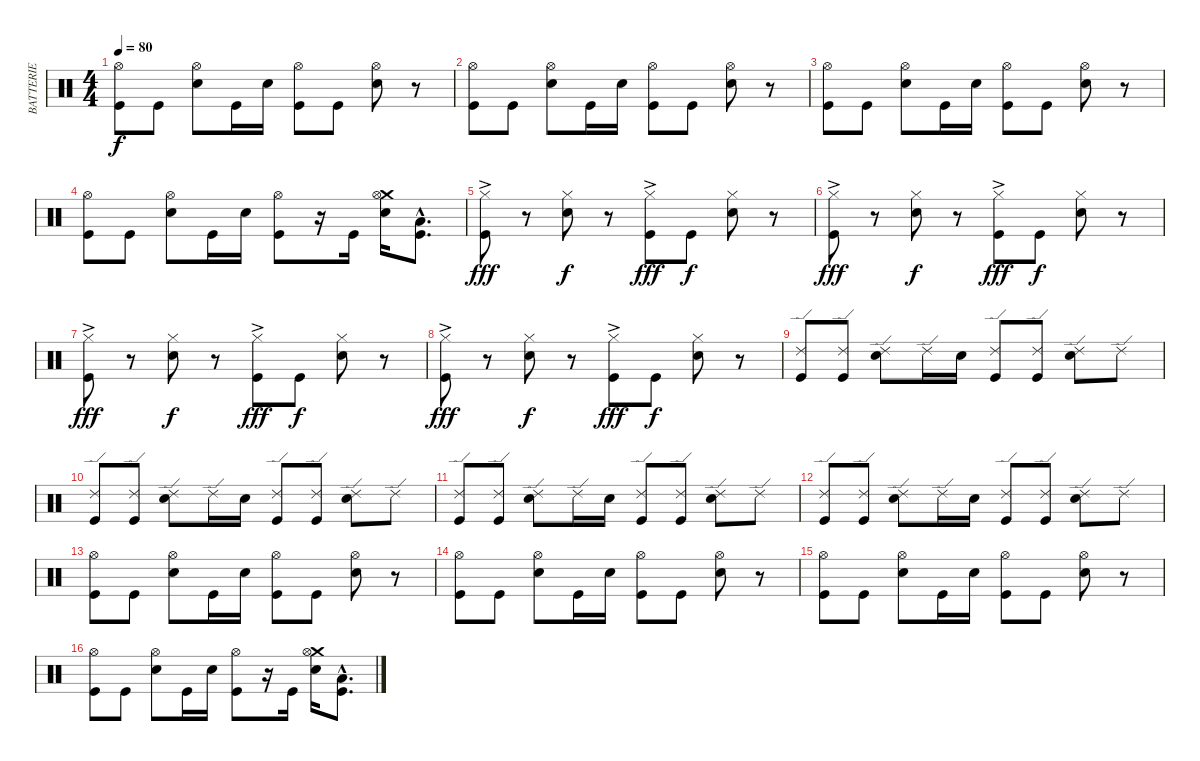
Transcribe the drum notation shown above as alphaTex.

\track ("BATTERIE" "BATTERIE") {instrument percussion}
\staff {score}
\articulation defaults
\ts (4 4)
\tempo 80
\clef neutral
\ks c
("Hi-Hat (open)" "Kick (hit)").8{dy f} "Kick (hit)".8 ("Hi-Hat (open)" "Electric Snare (hit)").8 "Kick (hit)".16 "Electric Snare (hit)".16 ("Hi-Hat (open)" "Kick (hit)").8 "Kick (hit)".8 ("Hi-Hat (open)" "Electric Snare (hit)").8 r.8 |
("Hi-Hat (open)" "Kick (hit)").8 "Kick (hit)".8 ("Hi-Hat (open)" "Electric Snare (hit)").8 "Kick (hit)".16 "Electric Snare (hit)".16 ("Hi-Hat (open)" "Kick (hit)").8 "Kick (hit)".8 ("Hi-Hat (open)" "Electric Snare (hit)").8 r.8 |
("Hi-Hat (open)" "Kick (hit)").8 "Kick (hit)".8 ("Hi-Hat (open)" "Electric Snare (hit)").8 "Kick (hit)".16 "Electric Snare (hit)".16 ("Hi-Hat (open)" "Kick (hit)").8 "Kick (hit)".8 ("Hi-Hat (open)" "Electric Snare (hit)").8 r.8 |
("Hi-Hat (open)" "Kick (hit)").8 "Kick (hit)".8 ("Hi-Hat (open)" "Electric Snare (hit)").8 "Kick (hit)".16 "Electric Snare (hit)".16 ("Hi-Hat (open)" "Kick (hit)").8 r.16 "Kick (hit)".16 ("Crash medium (hit)" "Hi-Hat (open)" "Electric Snare (hit)").16 ("Kick (hit)"{hac} "Low Floor Tom (hit)"{hac}).8{d} |
("Hi-Hat (closed)" "Kick (hit)"{ac}).8{dy fff} r.8 ("Hi-Hat (closed)" "Electric Snare (hit)").8{dy f} r.8 ("Hi-Hat (closed)" "Kick (hit)"{ac}).8{dy fff} "Kick (hit)".8{dy f} ("Hi-Hat (closed)" "Electric Snare (hit)").8 r.8 |
("Hi-Hat (closed)" "Kick (hit)"{ac}).8{dy fff} r.8 ("Hi-Hat (closed)" "Electric Snare (hit)").8{dy f} r.8 ("Hi-Hat (closed)" "Kick (hit)"{ac}).8{dy fff} "Kick (hit)".8{dy f} ("Hi-Hat (closed)" "Electric Snare (hit)").8 r.8 |
("Hi-Hat (closed)" "Kick (hit)"{ac}).8{dy fff} r.8 ("Hi-Hat (closed)" "Electric Snare (hit)").8{dy f} r.8 ("Hi-Hat (closed)" "Kick (hit)"{ac}).8{dy fff} "Kick (hit)".8{dy f} ("Hi-Hat (closed)" "Electric Snare (hit)").8 r.8 |
("Hi-Hat (closed)" "Kick (hit)"{ac}).8{dy fff} r.8 ("Hi-Hat (closed)" "Electric Snare (hit)").8{dy f} r.8 ("Hi-Hat (closed)" "Kick (hit)"{ac}).8{dy fff} "Kick (hit)".8{dy f} ("Hi-Hat (closed)" "Electric Snare (hit)").8 r.8 |
("Ride (edge) 2" "Kick (hit)").8 ("Ride (edge) 2" "Kick (hit)").8 ("Ride (edge) 2" "Electric Snare (hit)").8 "Ride (edge) 2".16 "Electric Snare (hit)".16 ("Ride (edge) 2" "Kick (hit)").8 ("Ride (edge) 2" "Kick (hit)").8 ("Ride (edge) 2" "Electric Snare (hit)").8 "Ride (edge) 2".8 |
("Ride (edge) 2" "Kick (hit)").8 ("Ride (edge) 2" "Kick (hit)").8 ("Ride (edge) 2" "Electric Snare (hit)").8 "Ride (edge) 2".16 "Electric Snare (hit)".16 ("Ride (edge) 2" "Kick (hit)").8 ("Ride (edge) 2" "Kick (hit)").8 ("Ride (edge) 2" "Electric Snare (hit)").8 "Ride (edge) 2".8 |
("Ride (edge) 2" "Kick (hit)").8 ("Ride (edge) 2" "Kick (hit)").8 ("Ride (edge) 2" "Electric Snare (hit)").8 "Ride (edge) 2".16 "Electric Snare (hit)".16 ("Ride (edge) 2" "Kick (hit)").8 ("Ride (edge) 2" "Kick (hit)").8 ("Ride (edge) 2" "Electric Snare (hit)").8 "Ride (edge) 2".8 |
("Ride (edge) 2" "Kick (hit)").8 ("Ride (edge) 2" "Kick (hit)").8 ("Ride (edge) 2" "Electric Snare (hit)").8 "Ride (edge) 2".16 "Electric Snare (hit)".16 ("Ride (edge) 2" "Kick (hit)").8 ("Ride (edge) 2" "Kick (hit)").8 ("Ride (edge) 2" "Electric Snare (hit)").8 "Ride (edge) 2".8 |
("Hi-Hat (open)" "Kick (hit)").8 "Kick (hit)".8 ("Hi-Hat (open)" "Electric Snare (hit)").8 "Kick (hit)".16 "Electric Snare (hit)".16 ("Hi-Hat (open)" "Kick (hit)").8 "Kick (hit)".8 ("Hi-Hat (open)" "Electric Snare (hit)").8 r.8 |
("Hi-Hat (open)" "Kick (hit)").8 "Kick (hit)".8 ("Hi-Hat (open)" "Electric Snare (hit)").8 "Kick (hit)".16 "Electric Snare (hit)".16 ("Hi-Hat (open)" "Kick (hit)").8 "Kick (hit)".8 ("Hi-Hat (open)" "Electric Snare (hit)").8 r.8 |
("Hi-Hat (open)" "Kick (hit)").8 "Kick (hit)".8 ("Hi-Hat (open)" "Electric Snare (hit)").8 "Kick (hit)".16 "Electric Snare (hit)".16 ("Hi-Hat (open)" "Kick (hit)").8 "Kick (hit)".8 ("Hi-Hat (open)" "Electric Snare (hit)").8 r.8 |
("Hi-Hat (open)" "Kick (hit)").8 "Kick (hit)".8 ("Hi-Hat (open)" "Electric Snare (hit)").8 "Kick (hit)".16 "Electric Snare (hit)".16 ("Hi-Hat (open)" "Kick (hit)").8 r.16 "Kick (hit)".16 ("Crash medium (hit)" "Hi-Hat (open)" "Electric Snare (hit)").16 ("Kick (hit)"{hac} "Low Floor Tom (hit)"{hac}).8{d}
